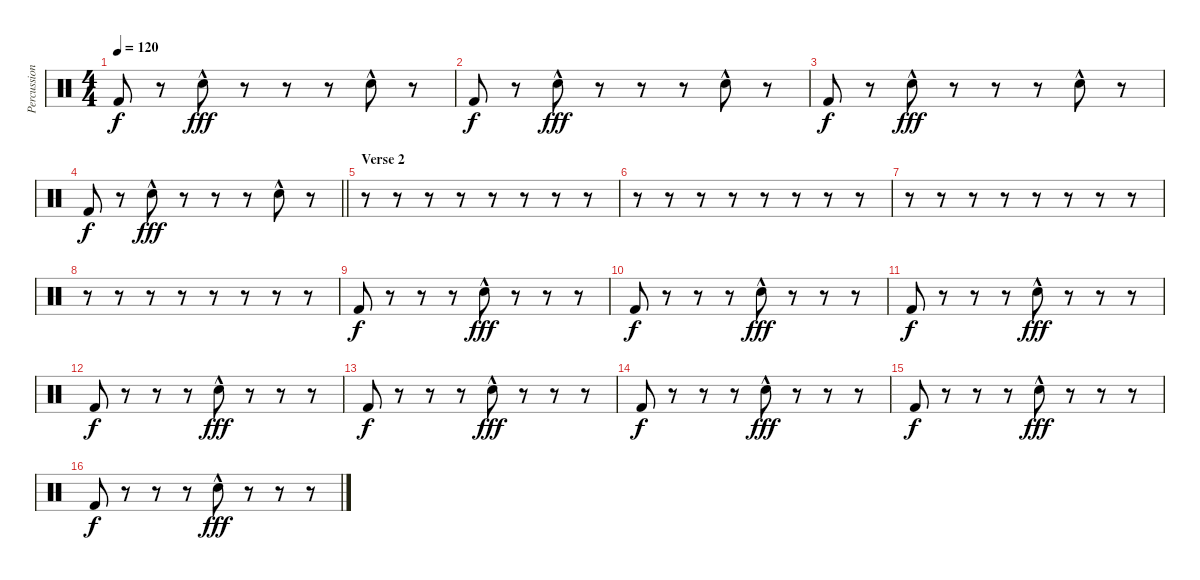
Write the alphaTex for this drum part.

\track ("Percussion" "Percussion") {instrument percussion}
\staff {score}
\articulation defaults
\ts (4 4)
\tempo 120
\clef neutral
\ks c "Kick (hit) 2".8{dy f}
r.8 "Snare (hit) 2"{hac}.8{dy fff} r.8 r.8 r.8 "Snare (hit) 2"{hac}.8 r.8 |
"Kick (hit) 2".8{dy f} r.8 "Snare (hit) 2"{hac}.8{dy fff} r.8 r.8 r.8 "Snare (hit) 2"{hac}.8 r.8 |
"Kick (hit) 2".8{dy f} r.8 "Snare (hit) 2"{hac}.8{dy fff} r.8 r.8 r.8 "Snare (hit) 2"{hac}.8 r.8 |
\barLineRight lightlight "Kick (hit) 2".8{dy f}
r.8 "Snare (hit) 2"{hac}.8{dy fff} r.8 r.8 r.8 "Snare (hit) 2"{hac}.8 r.8 |
\section ("" "Verse 2")
r.8 r.8 r.8 r.8 r.8 r.8 r.8 r.8 |
r.8 r.8 r.8 r.8 r.8 r.8 r.8 r.8 |
r.8 r.8 r.8 r.8 r.8 r.8 r.8 r.8 |
r.8 r.8 r.8 r.8 r.8 r.8 r.8 r.8 |
"Kick (hit) 2".8{dy f} r.8 r.8 r.8 "Snare (hit) 2"{hac}.8{dy fff} r.8 r.8 r.8 |
"Kick (hit) 2".8{dy f} r.8 r.8 r.8 "Snare (hit) 2"{hac}.8{dy fff} r.8 r.8 r.8 |
"Kick (hit) 2".8{dy f} r.8 r.8 r.8 "Snare (hit) 2"{hac}.8{dy fff} r.8 r.8 r.8 |
"Kick (hit) 2".8{dy f} r.8 r.8 r.8 "Snare (hit) 2"{hac}.8{dy fff} r.8 r.8 r.8 |
"Kick (hit) 2".8{dy f} r.8 r.8 r.8 "Snare (hit) 2"{hac}.8{dy fff} r.8 r.8 r.8 |
"Kick (hit) 2".8{dy f} r.8 r.8 r.8 "Snare (hit) 2"{hac}.8{dy fff} r.8 r.8 r.8 |
"Kick (hit) 2".8{dy f} r.8 r.8 r.8 "Snare (hit) 2"{hac}.8{dy fff} r.8 r.8 r.8 |
"Kick (hit) 2".8{dy f} r.8 r.8 r.8 "Snare (hit) 2"{hac}.8{dy fff} r.8 r.8 r.8
